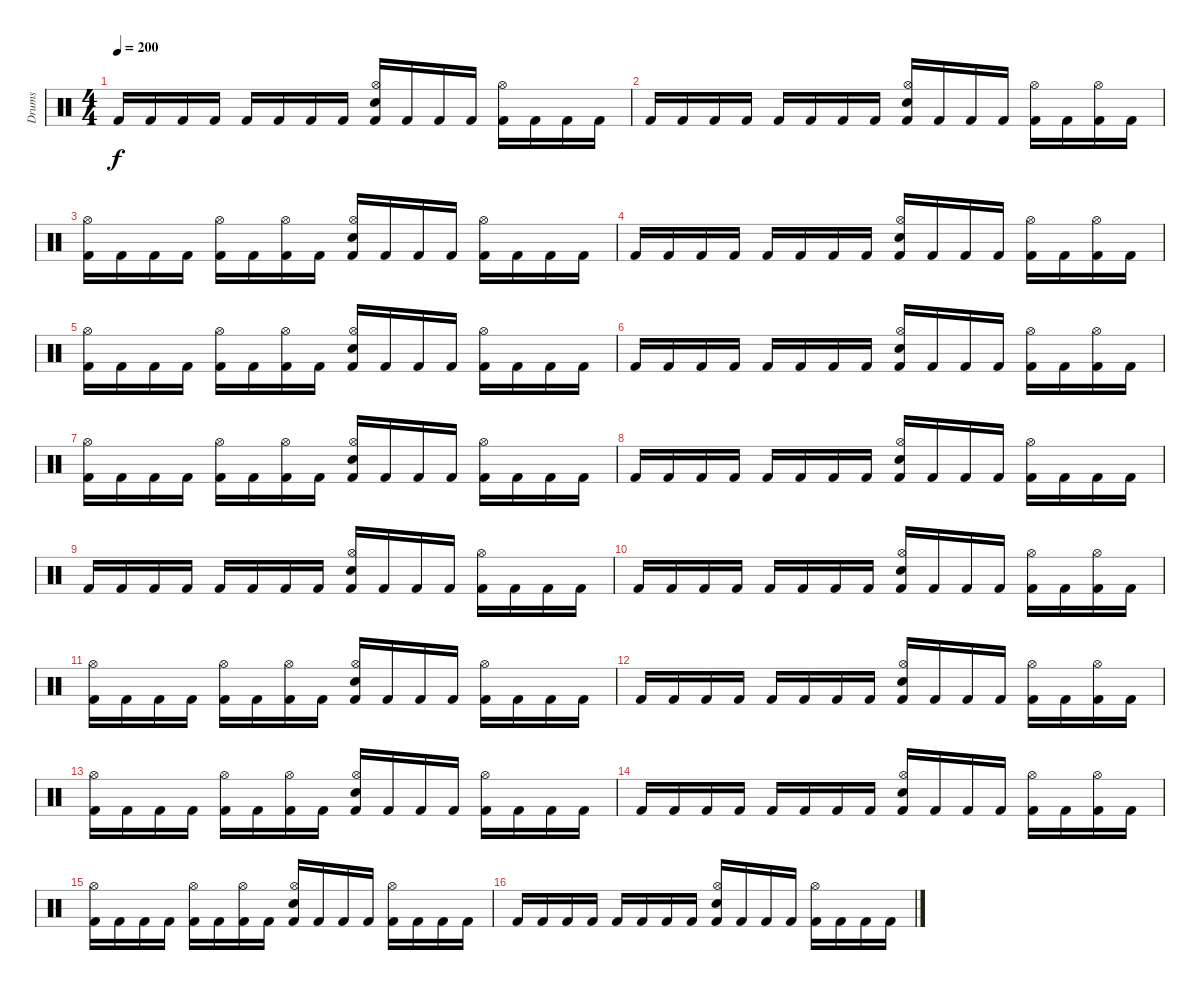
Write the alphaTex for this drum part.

\track ("Drums" "Drums") {instrument percussion}
\staff {score}
\articulation defaults
\ts (4 4)
\tempo 200
\clef neutral
\ks c "Kick (hit) 2".16{dy f} "Kick (hit) 2".16 "Kick (hit) 2".16 "Kick (hit) 2".16 "Kick (hit) 2".16 "Kick (hit) 2".16 "Kick (hit) 2".16 "Kick (hit) 2".16
("Hi-Hat (open)" "Snare (hit) 2" "Kick (hit) 2").16 "Kick (hit) 2".16 "Kick (hit) 2".16 "Kick (hit) 2".16 ("Hi-Hat (open)" "Kick (hit) 2").16 "Kick (hit) 2".16 "Kick (hit) 2".16 "Kick (hit) 2".16 |
"Kick (hit) 2".16 "Kick (hit) 2".16 "Kick (hit) 2".16 "Kick (hit) 2".16 "Kick (hit) 2".16 "Kick (hit) 2".16 "Kick (hit) 2".16 "Kick (hit) 2".16 ("Hi-Hat (open)" "Snare (hit) 2" "Kick (hit) 2").16 "Kick (hit) 2".16 "Kick (hit) 2".16 "Kick (hit) 2".16 ("Hi-Hat (open)" "Kick (hit) 2").16 "Kick (hit) 2".16 ("Hi-Hat (open)" "Kick (hit) 2").16 "Kick (hit) 2".16 |
("Hi-Hat (open)" "Kick (hit) 2").16 "Kick (hit) 2".16 "Kick (hit) 2".16 "Kick (hit) 2".16 ("Hi-Hat (open)" "Kick (hit) 2").16 "Kick (hit) 2".16 ("Hi-Hat (open)" "Kick (hit) 2").16 "Kick (hit) 2".16 ("Hi-Hat (open)" "Snare (hit) 2" "Kick (hit) 2").16 "Kick (hit) 2".16 "Kick (hit) 2".16 "Kick (hit) 2".16 ("Hi-Hat (open)" "Kick (hit) 2").16 "Kick (hit) 2".16 "Kick (hit) 2".16 "Kick (hit) 2".16 |
"Kick (hit) 2".16 "Kick (hit) 2".16 "Kick (hit) 2".16 "Kick (hit) 2".16 "Kick (hit) 2".16 "Kick (hit) 2".16 "Kick (hit) 2".16 "Kick (hit) 2".16 ("Hi-Hat (open)" "Electric Snare (hit)" "Kick (hit) 2").16 "Kick (hit) 2".16 "Kick (hit) 2".16 "Kick (hit) 2".16 ("Hi-Hat (open)" "Kick (hit) 2").16 "Kick (hit) 2".16 ("Hi-Hat (open)" "Kick (hit) 2").16 "Kick (hit) 2".16 |
("Hi-Hat (open)" "Kick (hit) 2").16 "Kick (hit) 2".16 "Kick (hit) 2".16 "Kick (hit) 2".16 ("Hi-Hat (open)" "Kick (hit) 2").16 "Kick (hit) 2".16 ("Hi-Hat (open)" "Kick (hit) 2").16 "Kick (hit) 2".16 ("Hi-Hat (open)" "Snare (hit) 2" "Kick (hit) 2").16 "Kick (hit) 2".16 "Kick (hit) 2".16 "Kick (hit) 2".16 ("Hi-Hat (open)" "Kick (hit) 2").16 "Kick (hit) 2".16 "Kick (hit) 2".16 "Kick (hit) 2".16 |
"Kick (hit) 2".16 "Kick (hit) 2".16 "Kick (hit) 2".16 "Kick (hit) 2".16 "Kick (hit) 2".16 "Kick (hit) 2".16 "Kick (hit) 2".16 "Kick (hit) 2".16 ("Hi-Hat (open)" "Snare (hit) 2" "Kick (hit) 2").16 "Kick (hit) 2".16 "Kick (hit) 2".16 "Kick (hit) 2".16 ("Hi-Hat (open)" "Kick (hit) 2").16 "Kick (hit) 2".16 ("Hi-Hat (open)" "Kick (hit) 2").16 "Kick (hit) 2".16 |
("Hi-Hat (open)" "Kick (hit) 2").16 "Kick (hit) 2".16 "Kick (hit) 2".16 "Kick (hit) 2".16 ("Hi-Hat (open)" "Kick (hit) 2").16 "Kick (hit) 2".16 ("Hi-Hat (open)" "Kick (hit) 2").16 "Kick (hit) 2".16 ("Hi-Hat (open)" "Snare (hit) 2" "Kick (hit) 2").16 "Kick (hit) 2".16 "Kick (hit) 2".16 "Kick (hit) 2".16 ("Hi-Hat (open)" "Kick (hit) 2").16 "Kick (hit) 2".16 "Kick (hit) 2".16 "Kick (hit) 2".16 |
"Kick (hit) 2".16 "Kick (hit) 2".16 "Kick (hit) 2".16 "Kick (hit) 2".16 "Kick (hit) 2".16 "Kick (hit) 2".16 "Kick (hit) 2".16 "Kick (hit) 2".16 ("Hi-Hat (open)" "Snare (hit) 2" "Kick (hit) 2").16 "Kick (hit) 2".16 "Kick (hit) 2".16 "Kick (hit) 2".16 ("Hi-Hat (open)" "Kick (hit) 2").16 "Kick (hit) 2".16 "Kick (hit) 2".16 "Kick (hit) 2".16 |
"Kick (hit) 2".16 "Kick (hit) 2".16 "Kick (hit) 2".16 "Kick (hit) 2".16 "Kick (hit) 2".16 "Kick (hit) 2".16 "Kick (hit) 2".16 "Kick (hit) 2".16 ("Hi-Hat (open)" "Snare (hit) 2" "Kick (hit) 2").16 "Kick (hit) 2".16 "Kick (hit) 2".16 "Kick (hit) 2".16 ("Hi-Hat (open)" "Kick (hit) 2").16 "Kick (hit) 2".16 "Kick (hit) 2".16 "Kick (hit) 2".16 |
"Kick (hit) 2".16 "Kick (hit) 2".16 "Kick (hit) 2".16 "Kick (hit) 2".16 "Kick (hit) 2".16 "Kick (hit) 2".16 "Kick (hit) 2".16 "Kick (hit) 2".16 ("Hi-Hat (open)" "Snare (hit) 2" "Kick (hit) 2").16 "Kick (hit) 2".16 "Kick (hit) 2".16 "Kick (hit) 2".16 ("Hi-Hat (open)" "Kick (hit) 2").16 "Kick (hit) 2".16 ("Hi-Hat (open)" "Kick (hit) 2").16 "Kick (hit) 2".16 |
("Hi-Hat (open)" "Kick (hit) 2").16 "Kick (hit) 2".16 "Kick (hit) 2".16 "Kick (hit) 2".16 ("Hi-Hat (open)" "Kick (hit) 2").16 "Kick (hit) 2".16 ("Hi-Hat (open)" "Kick (hit) 2").16 "Kick (hit) 2".16 ("Hi-Hat (open)" "Snare (hit) 2" "Kick (hit) 2").16 "Kick (hit) 2".16 "Kick (hit) 2".16 "Kick (hit) 2".16 ("Hi-Hat (open)" "Kick (hit) 2").16 "Kick (hit) 2".16 "Kick (hit) 2".16 "Kick (hit) 2".16 |
"Kick (hit) 2".16 "Kick (hit) 2".16 "Kick (hit) 2".16 "Kick (hit) 2".16 "Kick (hit) 2".16 "Kick (hit) 2".16 "Kick (hit) 2".16 "Kick (hit) 2".16 ("Hi-Hat (open)" "Snare (hit) 2" "Kick (hit) 2").16 "Kick (hit) 2".16 "Kick (hit) 2".16 "Kick (hit) 2".16 ("Hi-Hat (open)" "Kick (hit) 2").16 "Kick (hit) 2".16 ("Hi-Hat (open)" "Kick (hit) 2").16 "Kick (hit) 2".16 |
("Hi-Hat (open)" "Kick (hit) 2").16 "Kick (hit) 2".16 "Kick (hit) 2".16 "Kick (hit) 2".16 ("Hi-Hat (open)" "Kick (hit) 2").16 "Kick (hit) 2".16 ("Hi-Hat (open)" "Kick (hit) 2").16 "Kick (hit) 2".16 ("Hi-Hat (open)" "Snare (hit) 2" "Kick (hit) 2").16 "Kick (hit) 2".16 "Kick (hit) 2".16 "Kick (hit) 2".16 ("Hi-Hat (open)" "Kick (hit) 2").16 "Kick (hit) 2".16 "Kick (hit) 2".16 "Kick (hit) 2".16 |
"Kick (hit) 2".16 "Kick (hit) 2".16 "Kick (hit) 2".16 "Kick (hit) 2".16 "Kick (hit) 2".16 "Kick (hit) 2".16 "Kick (hit) 2".16 "Kick (hit) 2".16 ("Hi-Hat (open)" "Snare (hit) 2" "Kick (hit) 2").16 "Kick (hit) 2".16 "Kick (hit) 2".16 "Kick (hit) 2".16 ("Hi-Hat (open)" "Kick (hit) 2").16 "Kick (hit) 2".16 ("Hi-Hat (open)" "Kick (hit) 2").16 "Kick (hit) 2".16 |
("Hi-Hat (open)" "Kick (hit) 2").16 "Kick (hit) 2".16 "Kick (hit) 2".16 "Kick (hit) 2".16 ("Hi-Hat (open)" "Kick (hit) 2").16 "Kick (hit) 2".16 ("Hi-Hat (open)" "Kick (hit) 2").16 "Kick (hit) 2".16 ("Hi-Hat (open)" "Snare (hit) 2" "Kick (hit) 2").16 "Kick (hit) 2".16 "Kick (hit) 2".16 "Kick (hit) 2".16 ("Hi-Hat (open)" "Kick (hit) 2").16 "Kick (hit) 2".16 "Kick (hit) 2".16 "Kick (hit) 2".16 |
"Kick (hit) 2".16 "Kick (hit) 2".16 "Kick (hit) 2".16 "Kick (hit) 2".16 "Kick (hit) 2".16 "Kick (hit) 2".16 "Kick (hit) 2".16 "Kick (hit) 2".16 ("Hi-Hat (open)" "Snare (hit) 2" "Kick (hit) 2").16 "Kick (hit) 2".16 "Kick (hit) 2".16 "Kick (hit) 2".16 ("Hi-Hat (open)" "Kick (hit) 2").16 "Kick (hit) 2".16 "Kick (hit) 2".16 "Kick (hit) 2".16
